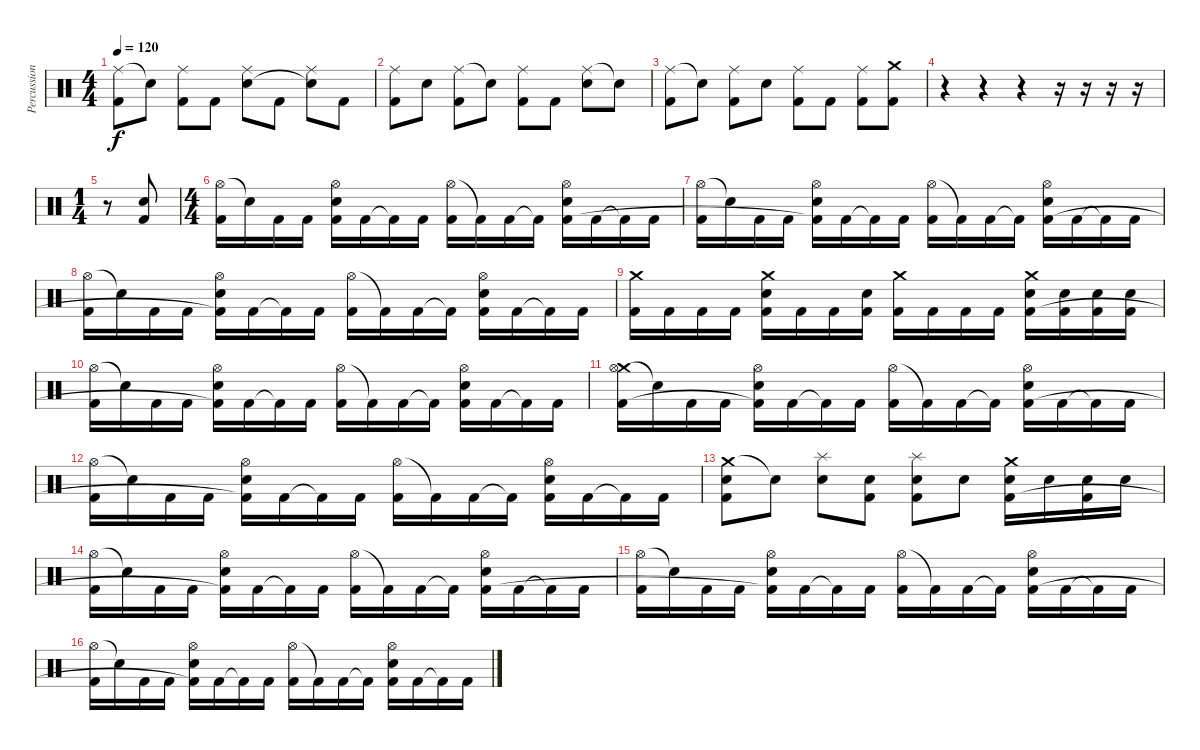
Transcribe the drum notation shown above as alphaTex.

\track ("Percussion" "Percussion") {instrument percussion}
\staff {score}
\articulation defaults
\ts (4 4)
\tempo 120
\clef neutral
\ks c
("Ride (middle)" "Kick (hit) 2").8{dy f} "Snare (hit)"{t}.8 ("Ride (middle)" "Kick (hit) 2").8 "Kick (hit) 2".8 ("Ride (middle)" "Electric Snare (hit)").8 "Kick (hit) 2".8 ("Ride (middle)" "Snare (hit)"{t}).8 "Kick (hit) 2".8 |
("Ride (middle)" "Kick (hit) 2").8 "Electric Snare (hit)".8 ("Ride (middle)" "Kick (hit) 2").8 "Snare (hit)"{t}.8 ("Ride (middle)" "Kick (hit) 2").8 "Kick (hit) 2".8 ("Ride (middle)" "Electric Snare (hit)").8 "Snare (hit)"{t}.8 |
("Ride (middle)" "Kick (hit) 2").8 "Snare (hit)"{t}.8 ("Ride (middle)" "Kick (hit) 2").8 "Electric Snare (hit)".8 ("Ride (middle)" "Kick (hit) 2").8 "Kick (hit) 2".8 ("Ride (middle)" "Kick (hit) 2").8 ("Crash medium (hit)" "Kick (hit) 2").8 |
r.4 r.4 r.4 r.16 r.16 r.16 r.16 |
\ts (1 4)
r.8 ("Electric Snare (hit)" "Kick (hit) 2").8 |
\ts (4 4)
("Hi-Hat (open)" "Kick (hit) 2").16 "Snare (hit)"{t}.16 "Kick (hit) 2".16 "Kick (hit) 2".16 ("Hi-Hat (open)" "Electric Snare (hit)" "Kick (hit) 2").16 "Kick (hit) 2".16 "Kick (hit) 2"{t}.16 "Kick (hit) 2".16 ("Hi-Hat (open)" "Kick (hit) 2").16 "Kick (hit) 2"{t}.16 "Kick (hit) 2".16 "Kick (hit) 2"{t}.16 ("Hi-Hat (open)" "Electric Snare (hit)" "Kick (hit) 2").16 "Kick (hit) 2".16 "Kick (hit) 2"{t}.16 "Kick (hit) 2".16 |
("Hi-Hat (open)" "Kick (hit) 2").16 "Snare (hit)"{t}.16 "Kick (hit) 2".16 "Kick (hit) 2".16 ("Hi-Hat (open)" "Electric Snare (hit)" "Kick (hit) 2"{t}).16 "Kick (hit) 2".16 "Kick (hit) 2"{t}.16 "Kick (hit) 2".16 ("Hi-Hat (open)" "Kick (hit) 2").16 "Kick (hit) 2"{t}.16 "Kick (hit) 2".16 "Kick (hit) 2"{t}.16 ("Hi-Hat (open)" "Electric Snare (hit)" "Kick (hit) 2").16 "Kick (hit) 2".16 "Kick (hit) 2"{t}.16 "Kick (hit) 2".16 |
("Hi-Hat (open)" "Kick (hit) 2").16 "Snare (hit)"{t}.16 "Kick (hit) 2".16 "Kick (hit) 2".16 ("Hi-Hat (open)" "Electric Snare (hit)" "Kick (hit) 2"{t}).16 "Kick (hit) 2".16 "Kick (hit) 2"{t}.16 "Kick (hit) 2".16 ("Hi-Hat (open)" "Kick (hit) 2").16 "Kick (hit) 2"{t}.16 "Kick (hit) 2".16 "Kick (hit) 2"{t}.16 ("Hi-Hat (open)" "Electric Snare (hit)" "Kick (hit) 2").16 "Kick (hit) 2".16 "Kick (hit) 2"{t}.16 "Kick (hit) 2".16 |
("Crash medium (hit)" "Kick (hit) 2").16 "Kick (hit) 2".16 "Kick (hit) 2".16 "Kick (hit) 2".16 ("Crash medium (hit)" "Electric Snare (hit)" "Kick (hit) 2").16 "Kick (hit) 2".16 "Kick (hit) 2".16 ("Electric Snare (hit)" "Kick (hit) 2").16 ("Crash medium (hit)" "Kick (hit) 2").16 "Kick (hit) 2".16 "Kick (hit) 2".16 "Kick (hit) 2".16 ("Crash medium (hit)" "Electric Snare (hit)" "Kick (hit) 2").16 ("Electric Snare (hit)" "Kick (hit) 2").16 ("Electric Snare (hit)" "Kick (hit) 2").16 ("Electric Snare (hit)" "Kick (hit) 2").16 |
("Hi-Hat (open)" "Kick (hit) 2").16 "Snare (hit)"{t}.16 "Kick (hit) 2".16 "Kick (hit) 2".16 ("Hi-Hat (open)" "Electric Snare (hit)" "Kick (hit) 2"{t}).16 "Kick (hit) 2".16 "Kick (hit) 2"{t}.16 "Kick (hit) 2".16 ("Hi-Hat (open)" "Kick (hit) 2").16 "Kick (hit) 2"{t}.16 "Kick (hit) 2".16 "Kick (hit) 2"{t}.16 ("Hi-Hat (open)" "Electric Snare (hit)" "Kick (hit) 2").16 "Kick (hit) 2".16 "Kick (hit) 2"{t}.16 "Kick (hit) 2".16 |
("Crash medium (hit)" "Hi-Hat (open)" "Kick (hit) 2").16 "Snare (hit)"{t}.16 "Kick (hit) 2".16 "Kick (hit) 2".16 ("Hi-Hat (open)" "Electric Snare (hit)" "Kick (hit) 2"{t}).16 "Kick (hit) 2".16 "Kick (hit) 2"{t}.16 "Kick (hit) 2".16 ("Hi-Hat (open)" "Kick (hit) 2").16 "Kick (hit) 2"{t}.16 "Kick (hit) 2".16 "Kick (hit) 2"{t}.16 ("Hi-Hat (open)" "Electric Snare (hit)" "Kick (hit) 2").16 "Kick (hit) 2".16 "Kick (hit) 2"{t}.16 "Kick (hit) 2".16 |
("Hi-Hat (open)" "Kick (hit) 2").16 "Snare (hit)"{t}.16 "Kick (hit) 2".16 "Kick (hit) 2".16 ("Hi-Hat (open)" "Electric Snare (hit)" "Kick (hit) 2"{t}).16 "Kick (hit) 2".16 "Kick (hit) 2"{t}.16 "Kick (hit) 2".16 ("Hi-Hat (open)" "Kick (hit) 2").16 "Kick (hit) 2"{t}.16 "Kick (hit) 2".16 "Kick (hit) 2"{t}.16 ("Hi-Hat (open)" "Electric Snare (hit)" "Kick (hit) 2").16 "Kick (hit) 2".16 "Kick (hit) 2"{t}.16 "Kick (hit) 2".16 |
("Crash medium (hit)" "Electric Snare (hit)" "Kick (hit) 2").8 "Snare (hit)"{t}.8 ("Splash (hit)" "Electric Snare (hit)").8 ("Electric Snare (hit)" "Kick (hit) 2").8 ("Splash (hit)" "Electric Snare (hit)" "Kick (hit) 2").8 "Electric Snare (hit)".8 ("Crash medium (hit)" "Electric Snare (hit)" "Kick (hit) 2").16 "Electric Snare (hit)".16 ("Electric Snare (hit)" "Kick (hit) 2").16 "Electric Snare (hit)".16 |
("Hi-Hat (open)" "Kick (hit) 2").16 "Snare (hit)"{t}.16 "Kick (hit) 2".16 "Kick (hit) 2".16 ("Hi-Hat (open)" "Electric Snare (hit)" "Kick (hit) 2"{t}).16 "Kick (hit) 2".16 "Kick (hit) 2"{t}.16 "Kick (hit) 2".16 ("Hi-Hat (open)" "Kick (hit) 2").16 "Kick (hit) 2"{t}.16 "Kick (hit) 2".16 "Kick (hit) 2"{t}.16 ("Hi-Hat (open)" "Electric Snare (hit)" "Kick (hit) 2").16 "Kick (hit) 2".16 "Kick (hit) 2"{t}.16 "Kick (hit) 2".16 |
("Hi-Hat (open)" "Kick (hit) 2").16 "Snare (hit)"{t}.16 "Kick (hit) 2".16 "Kick (hit) 2".16 ("Hi-Hat (open)" "Electric Snare (hit)" "Kick (hit) 2"{t}).16 "Kick (hit) 2".16 "Kick (hit) 2"{t}.16 "Kick (hit) 2".16 ("Hi-Hat (open)" "Kick (hit) 2").16 "Kick (hit) 2"{t}.16 "Kick (hit) 2".16 "Kick (hit) 2"{t}.16 ("Hi-Hat (open)" "Electric Snare (hit)" "Kick (hit) 2").16 "Kick (hit) 2".16 "Kick (hit) 2"{t}.16 "Kick (hit) 2".16 |
("Hi-Hat (open)" "Kick (hit) 2").16 "Snare (hit)"{t}.16 "Kick (hit) 2".16 "Kick (hit) 2".16 ("Hi-Hat (open)" "Electric Snare (hit)" "Kick (hit) 2"{t}).16 "Kick (hit) 2".16 "Kick (hit) 2"{t}.16 "Kick (hit) 2".16 ("Hi-Hat (open)" "Kick (hit) 2").16 "Kick (hit) 2"{t}.16 "Kick (hit) 2".16 "Kick (hit) 2"{t}.16 ("Hi-Hat (open)" "Electric Snare (hit)" "Kick (hit) 2").16 "Kick (hit) 2".16 "Kick (hit) 2"{t}.16 "Kick (hit) 2".16
